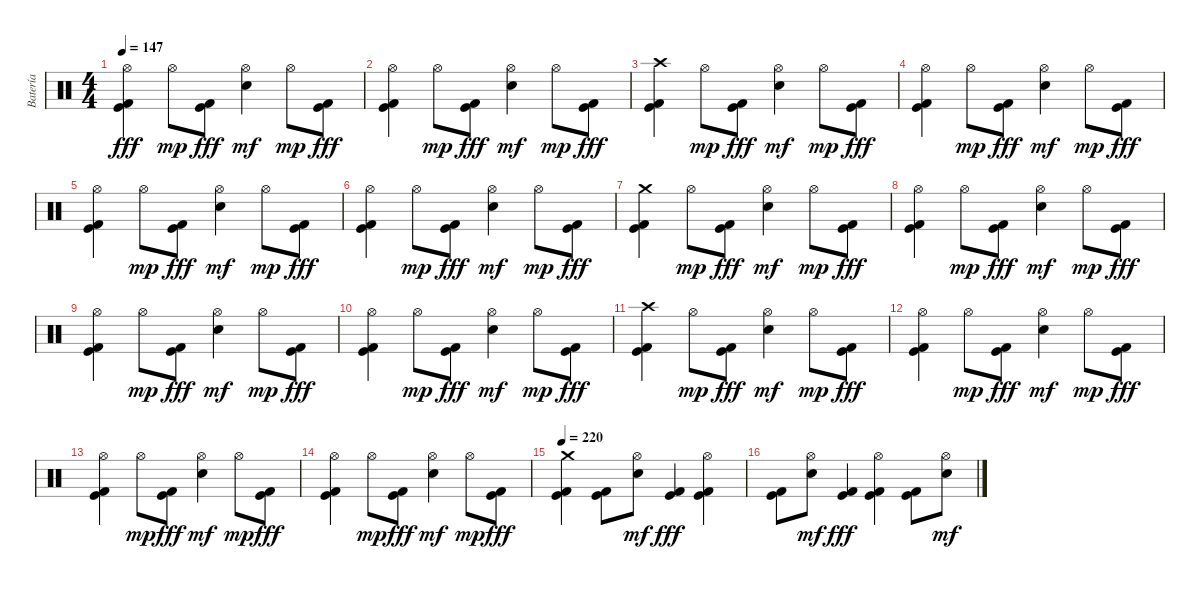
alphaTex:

\track ("Batería" "Batería") {instrument percussion}
\staff {score}
\articulation defaults
\ts (4 4)
\tempo 147
\clef neutral
\ks c
("Hi-Hat (open)" "Kick (hit) 2" "Kick (hit)").4{dy fff} "Hi-Hat (open)".8{dy mp} ("Kick (hit) 2" "Kick (hit)").8{dy fff} ("Hi-Hat (open)" "Electric Snare (hit)").4{dy mf} "Hi-Hat (open)".8{dy mp} ("Kick (hit) 2" "Kick (hit)").8{dy fff} |
("Hi-Hat (open)" "Kick (hit) 2" "Kick (hit)").4 "Hi-Hat (open)".8{dy mp} ("Kick (hit) 2" "Kick (hit)").8{dy fff} ("Hi-Hat (open)" "Electric Snare (hit)").4{dy mf} "Hi-Hat (open)".8{dy mp} ("Kick (hit) 2" "Kick (hit)").8{dy fff} |
("Crash high (hit)" "Kick (hit) 2" "Kick (hit)").4 "Hi-Hat (open)".8{dy mp} ("Kick (hit) 2" "Kick (hit)").8{dy fff} ("Hi-Hat (open)" "Electric Snare (hit)").4{dy mf} "Hi-Hat (open)".8{dy mp} ("Kick (hit) 2" "Kick (hit)").8{dy fff} |
("Hi-Hat (open)" "Kick (hit) 2" "Kick (hit)").4 "Hi-Hat (open)".8{dy mp} ("Kick (hit) 2" "Kick (hit)").8{dy fff} ("Hi-Hat (open)" "Electric Snare (hit)").4{dy mf} "Hi-Hat (open)".8{dy mp} ("Kick (hit) 2" "Kick (hit)").8{dy fff} |
("Hi-Hat (open)" "Kick (hit) 2" "Kick (hit)").4 "Hi-Hat (open)".8{dy mp} ("Kick (hit) 2" "Kick (hit)").8{dy fff} ("Hi-Hat (open)" "Electric Snare (hit)").4{dy mf} "Hi-Hat (open)".8{dy mp} ("Kick (hit) 2" "Kick (hit)").8{dy fff} |
("Hi-Hat (open)" "Kick (hit) 2" "Kick (hit)").4 "Hi-Hat (open)".8{dy mp} ("Kick (hit) 2" "Kick (hit)").8{dy fff} ("Hi-Hat (open)" "Electric Snare (hit)").4{dy mf} "Hi-Hat (open)".8{dy mp} ("Kick (hit) 2" "Kick (hit)").8{dy fff} |
("Crash medium (hit)" "Kick (hit) 2" "Kick (hit)").4 "Hi-Hat (open)".8{dy mp} ("Kick (hit) 2" "Kick (hit)").8{dy fff} ("Hi-Hat (open)" "Electric Snare (hit)").4{dy mf} "Hi-Hat (open)".8{dy mp} ("Kick (hit) 2" "Kick (hit)").8{dy fff} |
("Hi-Hat (open)" "Kick (hit) 2" "Kick (hit)").4 "Hi-Hat (open)".8{dy mp} ("Kick (hit) 2" "Kick (hit)").8{dy fff} ("Hi-Hat (open)" "Electric Snare (hit)").4{dy mf} "Hi-Hat (open)".8{dy mp} ("Kick (hit) 2" "Kick (hit)").8{dy fff} |
("Hi-Hat (open)" "Kick (hit) 2" "Kick (hit)").4 "Hi-Hat (open)".8{dy mp} ("Kick (hit) 2" "Kick (hit)").8{dy fff} ("Hi-Hat (open)" "Electric Snare (hit)").4{dy mf} "Hi-Hat (open)".8{dy mp} ("Kick (hit) 2" "Kick (hit)").8{dy fff} |
("Hi-Hat (open)" "Kick (hit) 2" "Kick (hit)").4 "Hi-Hat (open)".8{dy mp} ("Kick (hit) 2" "Kick (hit)").8{dy fff} ("Hi-Hat (open)" "Electric Snare (hit)").4{dy mf} "Hi-Hat (open)".8{dy mp} ("Kick (hit) 2" "Kick (hit)").8{dy fff} |
("Crash high (hit)" "Kick (hit) 2" "Kick (hit)").4 "Hi-Hat (open)".8{dy mp} ("Kick (hit) 2" "Kick (hit)").8{dy fff} ("Hi-Hat (open)" "Electric Snare (hit)").4{dy mf} "Hi-Hat (open)".8{dy mp} ("Kick (hit) 2" "Kick (hit)").8{dy fff} |
("Hi-Hat (open)" "Kick (hit) 2" "Kick (hit)").4 "Hi-Hat (open)".8{dy mp} ("Kick (hit) 2" "Kick (hit)").8{dy fff} ("Hi-Hat (open)" "Electric Snare (hit)").4{dy mf} "Hi-Hat (open)".8{dy mp} ("Kick (hit) 2" "Kick (hit)").8{dy fff} |
("Hi-Hat (open)" "Kick (hit) 2" "Kick (hit)").4 "Hi-Hat (open)".8{dy mp} ("Kick (hit) 2" "Kick (hit)").8{dy fff} ("Hi-Hat (open)" "Electric Snare (hit)").4{dy mf} "Hi-Hat (open)".8{dy mp} ("Kick (hit) 2" "Kick (hit)").8{dy fff} |
("Hi-Hat (open)" "Kick (hit) 2" "Kick (hit)").4 "Hi-Hat (open)".8{dy mp} ("Kick (hit) 2" "Kick (hit)").8{dy fff} ("Hi-Hat (open)" "Electric Snare (hit)").4{dy mf} "Hi-Hat (open)".8{dy mp} ("Kick (hit) 2" "Kick (hit)").8{dy fff} |
\tempo 220
("Crash medium (hit)" "Kick (hit) 2" "Kick (hit)").4 ("Kick (hit) 2" "Kick (hit)").8 ("Hi-Hat (open)" "Electric Snare (hit)").8{dy mf} ("Kick (hit) 2" "Kick (hit)").4{dy fff} ("Hi-Hat (open)" "Kick (hit) 2" "Kick (hit)").4 |
("Kick (hit) 2" "Kick (hit)").8 ("Hi-Hat (open)" "Electric Snare (hit)").8{dy mf} ("Kick (hit) 2" "Kick (hit)").4{dy fff} ("Hi-Hat (open)" "Kick (hit) 2" "Kick (hit)").4 ("Kick (hit) 2" "Kick (hit)").8 ("Hi-Hat (open)" "Electric Snare (hit)").8{dy mf}
